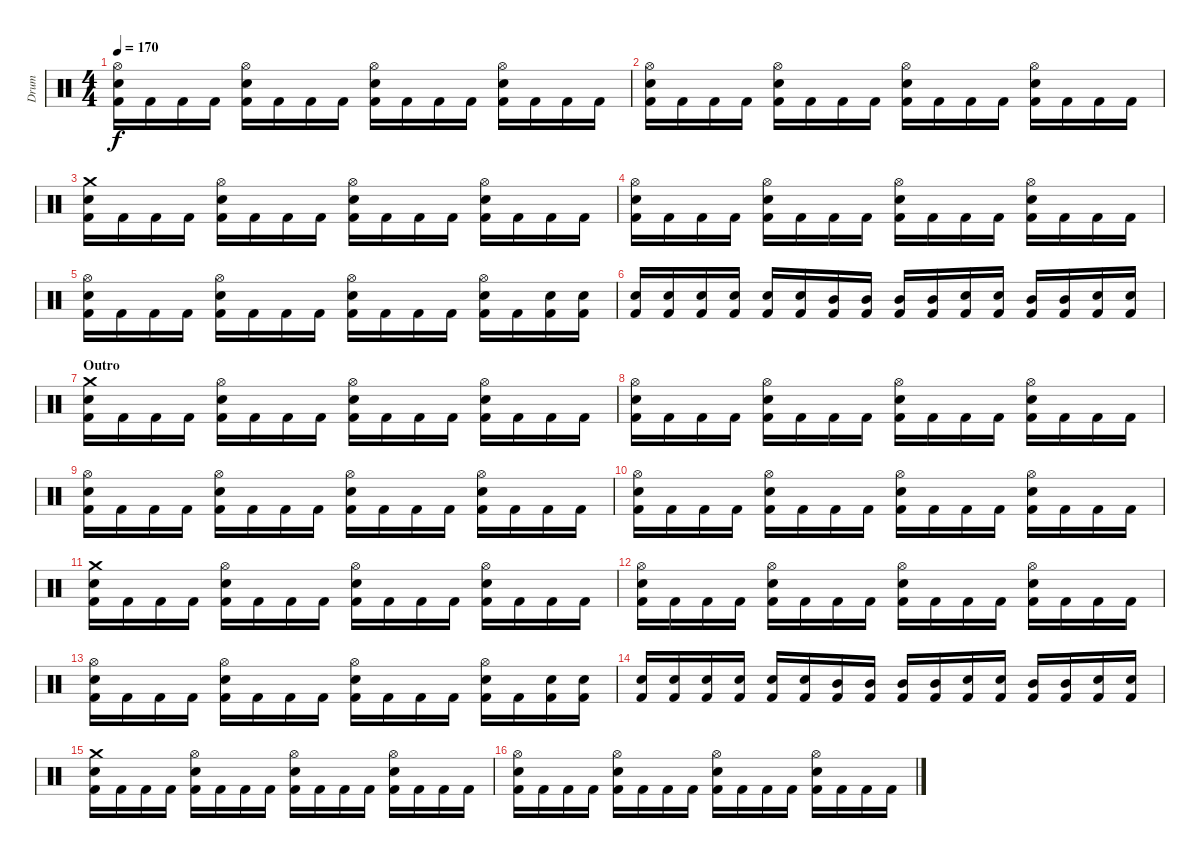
\track ("Drum" "Drum") {instrument percussion}
\staff
\articulation defaults
\ts (4 4)
\tempo 170
\clef neutral
\ks c
("Hi-Hat (open)" "Electric Snare (hit)" "Kick (hit) 2").16{dy f} "Kick (hit) 2".16 "Kick (hit) 2".16 "Kick (hit) 2".16 ("Hi-Hat (open)" "Electric Snare (hit)" "Kick (hit) 2").16 "Kick (hit) 2".16 "Kick (hit) 2".16 "Kick (hit) 2".16 ("Hi-Hat (open)" "Electric Snare (hit)" "Kick (hit) 2").16 "Kick (hit) 2".16 "Kick (hit) 2".16 "Kick (hit) 2".16 ("Hi-Hat (open)" "Electric Snare (hit)" "Kick (hit) 2").16 "Kick (hit) 2".16 "Kick (hit) 2".16 "Kick (hit) 2".16 |
("Hi-Hat (open)" "Electric Snare (hit)" "Kick (hit) 2").16 "Kick (hit) 2".16 "Kick (hit) 2".16 "Kick (hit) 2".16 ("Hi-Hat (open)" "Electric Snare (hit)" "Kick (hit) 2").16 "Kick (hit) 2".16 "Kick (hit) 2".16 "Kick (hit) 2".16 ("Hi-Hat (open)" "Electric Snare (hit)" "Kick (hit) 2").16 "Kick (hit) 2".16 "Kick (hit) 2".16 "Kick (hit) 2".16 ("Hi-Hat (open)" "Electric Snare (hit)" "Kick (hit) 2").16 "Kick (hit) 2".16 "Kick (hit) 2".16 "Kick (hit) 2".16 |
("Crash medium (hit)" "Electric Snare (hit)" "Kick (hit) 2").16 "Kick (hit) 2".16 "Kick (hit) 2".16 "Kick (hit) 2".16 ("Hi-Hat (open)" "Electric Snare (hit)" "Kick (hit) 2").16 "Kick (hit) 2".16 "Kick (hit) 2".16 "Kick (hit) 2".16 ("Hi-Hat (open)" "Electric Snare (hit)" "Kick (hit) 2").16 "Kick (hit) 2".16 "Kick (hit) 2".16 "Kick (hit) 2".16 ("Hi-Hat (open)" "Electric Snare (hit)" "Kick (hit) 2").16 "Kick (hit) 2".16 "Kick (hit) 2".16 "Kick (hit) 2".16 |
("Hi-Hat (open)" "Electric Snare (hit)" "Kick (hit) 2").16 "Kick (hit) 2".16 "Kick (hit) 2".16 "Kick (hit) 2".16 ("Hi-Hat (open)" "Electric Snare (hit)" "Kick (hit) 2").16 "Kick (hit) 2".16 "Kick (hit) 2".16 "Kick (hit) 2".16 ("Hi-Hat (open)" "Electric Snare (hit)" "Kick (hit) 2").16 "Kick (hit) 2".16 "Kick (hit) 2".16 "Kick (hit) 2".16 ("Hi-Hat (open)" "Electric Snare (hit)" "Kick (hit) 2").16 "Kick (hit) 2".16 "Kick (hit) 2".16 "Kick (hit) 2".16 |
("Hi-Hat (open)" "Electric Snare (hit)" "Kick (hit) 2").16 "Kick (hit) 2".16 "Kick (hit) 2".16 "Kick (hit) 2".16 ("Hi-Hat (open)" "Electric Snare (hit)" "Kick (hit) 2").16 "Kick (hit) 2".16 "Kick (hit) 2".16 "Kick (hit) 2".16 ("Hi-Hat (open)" "Electric Snare (hit)" "Kick (hit) 2").16 "Kick (hit) 2".16 "Kick (hit) 2".16 "Kick (hit) 2".16 ("Hi-Hat (open)" "Electric Snare (hit)" "Kick (hit) 2").16 "Kick (hit) 2".16 ("Electric Snare (hit)" "Kick (hit) 2").16 ("Electric Snare (hit)" "Kick (hit) 2").16 |
("Electric Snare (hit)" "Kick (hit) 2").16 ("Electric Snare (hit)" "Kick (hit) 2").16 ("Electric Snare (hit)" "Kick (hit) 2").16 ("Electric Snare (hit)" "Kick (hit) 2").16 ("Electric Snare (hit)" "Kick (hit) 2").16 ("Electric Snare (hit)" "Kick (hit) 2").16 ("Mid Tom (hit)" "Kick (hit) 2").16 ("Mid Tom (hit)" "Kick (hit) 2").16 ("Mid Tom (hit)" "Kick (hit) 2").16 ("Mid Tom (hit)" "Kick (hit) 2").16 ("Electric Snare (hit)" "Kick (hit) 2").16 ("Electric Snare (hit)" "Kick (hit) 2").16 ("Mid Tom (hit)" "Kick (hit) 2").16 ("Mid Tom (hit)" "Kick (hit) 2").16 ("Electric Snare (hit)" "Kick (hit) 2").16 ("Electric Snare (hit)" "Kick (hit) 2").16 |
\section ("" "Outro")
("Crash medium (hit)" "Electric Snare (hit)" "Kick (hit) 2").16 "Kick (hit) 2".16 "Kick (hit) 2".16 "Kick (hit) 2".16 ("Hi-Hat (open)" "Electric Snare (hit)" "Kick (hit) 2").16 "Kick (hit) 2".16 "Kick (hit) 2".16 "Kick (hit) 2".16 ("Hi-Hat (open)" "Electric Snare (hit)" "Kick (hit) 2").16 "Kick (hit) 2".16 "Kick (hit) 2".16 "Kick (hit) 2".16 ("Hi-Hat (open)" "Electric Snare (hit)" "Kick (hit) 2").16 "Kick (hit) 2".16 "Kick (hit) 2".16 "Kick (hit) 2".16 |
("Hi-Hat (open)" "Electric Snare (hit)" "Kick (hit) 2").16 "Kick (hit) 2".16 "Kick (hit) 2".16 "Kick (hit) 2".16 ("Hi-Hat (open)" "Electric Snare (hit)" "Kick (hit) 2").16 "Kick (hit) 2".16 "Kick (hit) 2".16 "Kick (hit) 2".16 ("Hi-Hat (open)" "Electric Snare (hit)" "Kick (hit) 2").16 "Kick (hit) 2".16 "Kick (hit) 2".16 "Kick (hit) 2".16 ("Hi-Hat (open)" "Electric Snare (hit)" "Kick (hit) 2").16 "Kick (hit) 2".16 "Kick (hit) 2".16 "Kick (hit) 2".16 |
("Hi-Hat (open)" "Electric Snare (hit)" "Kick (hit) 2").16 "Kick (hit) 2".16 "Kick (hit) 2".16 "Kick (hit) 2".16 ("Hi-Hat (open)" "Electric Snare (hit)" "Kick (hit) 2").16 "Kick (hit) 2".16 "Kick (hit) 2".16 "Kick (hit) 2".16 ("Hi-Hat (open)" "Electric Snare (hit)" "Kick (hit) 2").16 "Kick (hit) 2".16 "Kick (hit) 2".16 "Kick (hit) 2".16 ("Hi-Hat (open)" "Electric Snare (hit)" "Kick (hit) 2").16 "Kick (hit) 2".16 "Kick (hit) 2".16 "Kick (hit) 2".16 |
("Hi-Hat (open)" "Electric Snare (hit)" "Kick (hit) 2").16 "Kick (hit) 2".16 "Kick (hit) 2".16 "Kick (hit) 2".16 ("Hi-Hat (open)" "Electric Snare (hit)" "Kick (hit) 2").16 "Kick (hit) 2".16 "Kick (hit) 2".16 "Kick (hit) 2".16 ("Hi-Hat (open)" "Electric Snare (hit)" "Kick (hit) 2").16 "Kick (hit) 2".16 "Kick (hit) 2".16 "Kick (hit) 2".16 ("Hi-Hat (open)" "Electric Snare (hit)" "Kick (hit) 2").16 "Kick (hit) 2".16 "Kick (hit) 2".16 "Kick (hit) 2".16 |
("Crash medium (hit)" "Electric Snare (hit)" "Kick (hit) 2").16 "Kick (hit) 2".16 "Kick (hit) 2".16 "Kick (hit) 2".16 ("Hi-Hat (open)" "Electric Snare (hit)" "Kick (hit) 2").16 "Kick (hit) 2".16 "Kick (hit) 2".16 "Kick (hit) 2".16 ("Hi-Hat (open)" "Electric Snare (hit)" "Kick (hit) 2").16 "Kick (hit) 2".16 "Kick (hit) 2".16 "Kick (hit) 2".16 ("Hi-Hat (open)" "Electric Snare (hit)" "Kick (hit) 2").16 "Kick (hit) 2".16 "Kick (hit) 2".16 "Kick (hit) 2".16 |
("Hi-Hat (open)" "Electric Snare (hit)" "Kick (hit) 2").16 "Kick (hit) 2".16 "Kick (hit) 2".16 "Kick (hit) 2".16 ("Hi-Hat (open)" "Electric Snare (hit)" "Kick (hit) 2").16 "Kick (hit) 2".16 "Kick (hit) 2".16 "Kick (hit) 2".16 ("Hi-Hat (open)" "Electric Snare (hit)" "Kick (hit) 2").16 "Kick (hit) 2".16 "Kick (hit) 2".16 "Kick (hit) 2".16 ("Hi-Hat (open)" "Electric Snare (hit)" "Kick (hit) 2").16 "Kick (hit) 2".16 "Kick (hit) 2".16 "Kick (hit) 2".16 |
("Hi-Hat (open)" "Electric Snare (hit)" "Kick (hit) 2").16 "Kick (hit) 2".16 "Kick (hit) 2".16 "Kick (hit) 2".16 ("Hi-Hat (open)" "Electric Snare (hit)" "Kick (hit) 2").16 "Kick (hit) 2".16 "Kick (hit) 2".16 "Kick (hit) 2".16 ("Hi-Hat (open)" "Electric Snare (hit)" "Kick (hit) 2").16 "Kick (hit) 2".16 "Kick (hit) 2".16 "Kick (hit) 2".16 ("Hi-Hat (open)" "Electric Snare (hit)" "Kick (hit) 2").16 "Kick (hit) 2".16 ("Electric Snare (hit)" "Kick (hit) 2").16 ("Electric Snare (hit)" "Kick (hit) 2").16 |
("Electric Snare (hit)" "Kick (hit) 2").16 ("Electric Snare (hit)" "Kick (hit) 2").16 ("Electric Snare (hit)" "Kick (hit) 2").16 ("Electric Snare (hit)" "Kick (hit) 2").16 ("Electric Snare (hit)" "Kick (hit) 2").16 ("Electric Snare (hit)" "Kick (hit) 2").16 ("Mid Tom (hit)" "Kick (hit) 2").16 ("Mid Tom (hit)" "Kick (hit) 2").16 ("Mid Tom (hit)" "Kick (hit) 2").16 ("Mid Tom (hit)" "Kick (hit) 2").16 ("Electric Snare (hit)" "Kick (hit) 2").16 ("Electric Snare (hit)" "Kick (hit) 2").16 ("Mid Tom (hit)" "Kick (hit) 2").16 ("Mid Tom (hit)" "Kick (hit) 2").16 ("Electric Snare (hit)" "Kick (hit) 2").16 ("Electric Snare (hit)" "Kick (hit) 2").16 |
("Crash medium (hit)" "Electric Snare (hit)" "Kick (hit) 2").16 "Kick (hit) 2".16 "Kick (hit) 2".16 "Kick (hit) 2".16 ("Hi-Hat (open)" "Electric Snare (hit)" "Kick (hit) 2").16 "Kick (hit) 2".16 "Kick (hit) 2".16 "Kick (hit) 2".16 ("Hi-Hat (open)" "Electric Snare (hit)" "Kick (hit) 2").16 "Kick (hit) 2".16 "Kick (hit) 2".16 "Kick (hit) 2".16 ("Hi-Hat (open)" "Electric Snare (hit)" "Kick (hit) 2").16 "Kick (hit) 2".16 "Kick (hit) 2".16 "Kick (hit) 2".16 |
("Hi-Hat (open)" "Electric Snare (hit)" "Kick (hit) 2").16 "Kick (hit) 2".16 "Kick (hit) 2".16 "Kick (hit) 2".16 ("Hi-Hat (open)" "Electric Snare (hit)" "Kick (hit) 2").16 "Kick (hit) 2".16 "Kick (hit) 2".16 "Kick (hit) 2".16 ("Hi-Hat (open)" "Electric Snare (hit)" "Kick (hit) 2").16 "Kick (hit) 2".16 "Kick (hit) 2".16 "Kick (hit) 2".16 ("Hi-Hat (open)" "Electric Snare (hit)" "Kick (hit) 2").16 "Kick (hit) 2".16 "Kick (hit) 2".16 "Kick (hit) 2".16
